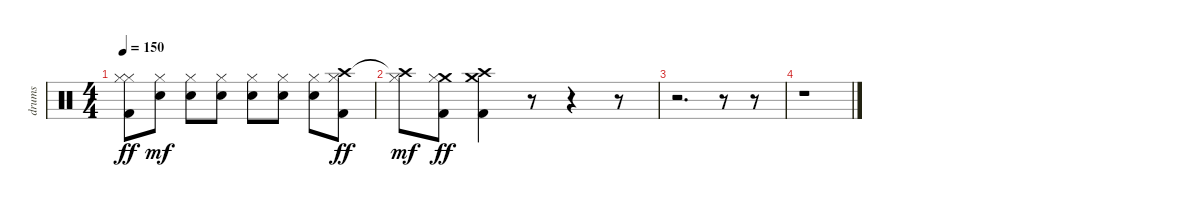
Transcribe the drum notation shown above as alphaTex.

\track ("drums" "drums") {instrument percussion}
\staff {score}
\articulation defaults
\ts (4 4)
\tempo 150
\clef neutral
\ks c
("Hi-Hat (closed)"{t} "Hi-Hat (closed)" "Kick (hit) 2").8{dy ff} ("Hi-Hat (closed)" "Electric Snare (hit)").8{dy mf} ("Hi-Hat (closed)" "Electric Snare (hit)").8 ("Hi-Hat (closed)" "Electric Snare (hit)").8 ("Hi-Hat (closed)" "Electric Snare (hit)").8 ("Hi-Hat (closed)" "Electric Snare (hit)").8 ("Hi-Hat (closed)" "Electric Snare (hit)").8 ("Crash high (hit)" "Hi-Hat (closed)" "Kick (hit) 2").8{dy ff} |
("Crash high (hit)"{t} "Hi-Hat (closed)").8{dy mf} ("Crash medium (hit)" "Hi-Hat (closed)" "Kick (hit) 2").8{dy ff} ("Crash medium (hit)" "Crash high (hit)" "Kick (hit) 2").4 r.8 r.4 r.8 |
r.2{d} r.8 r.8 |
r.1
